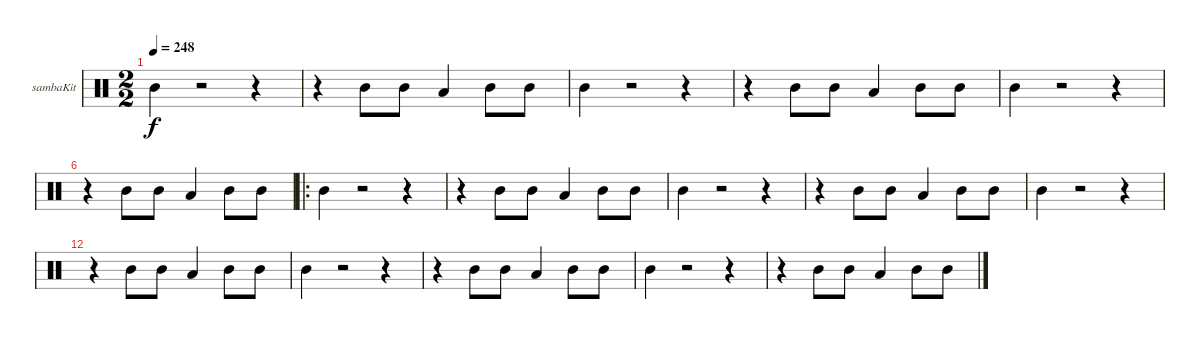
\bracketExtendMode nobrackets
\firstSystemTrackNameOrientation horizontal
\otherSystemsTrackNameOrientation horizontal
\defaultBarNumberDisplay FirstOfSystem
\track ("Kit-Samba" "sambaKit") {instrument percussion}
\staff {score}
\articulation defaults
\ts (2 2)
\tempo 248
\clef neutral
\ks c "Mid Tom (hit)".4{dy f}
r.2 r.4 |
r.4 "Mid Tom (hit)".8 "Mid Tom (hit)".8 "Low Tom (hit)".4 "Mid Tom (hit)".8 "Mid Tom (hit)".8 |
"Mid Tom (hit)".4 r.2 r.4 |
r.4 "Mid Tom (hit)".8 "Mid Tom (hit)".8 "Low Tom (hit)".4 "Mid Tom (hit)".8 "Mid Tom (hit)".8 |
"Mid Tom (hit)".4 r.2 r.4 |
r.4 "Mid Tom (hit)".8 "Mid Tom (hit)".8 "Low Tom (hit)".4 "Mid Tom (hit)".8 "Mid Tom (hit)".8 |
\ro "Mid Tom (hit)".4
r.2 r.4 |
r.4 "Mid Tom (hit)".8 "Mid Tom (hit)".8 "Low Tom (hit)".4 "Mid Tom (hit)".8 "Mid Tom (hit)".8 |
"Mid Tom (hit)".4 r.2 r.4 |
r.4 "Mid Tom (hit)".8 "Mid Tom (hit)".8 "Low Tom (hit)".4 "Mid Tom (hit)".8 "Mid Tom (hit)".8 |
"Mid Tom (hit)".4 r.2 r.4 |
r.4 "Mid Tom (hit)".8 "Mid Tom (hit)".8 "Low Tom (hit)".4 "Mid Tom (hit)".8 "Mid Tom (hit)".8 |
"Mid Tom (hit)".4 r.2 r.4 |
r.4 "Mid Tom (hit)".8 "Mid Tom (hit)".8 "Low Tom (hit)".4 "Mid Tom (hit)".8 "Mid Tom (hit)".8 |
"Mid Tom (hit)".4 r.2 r.4 |
r.4 "Mid Tom (hit)".8 "Mid Tom (hit)".8 "Low Tom (hit)".4 "Mid Tom (hit)".8 "Mid Tom (hit)".8
